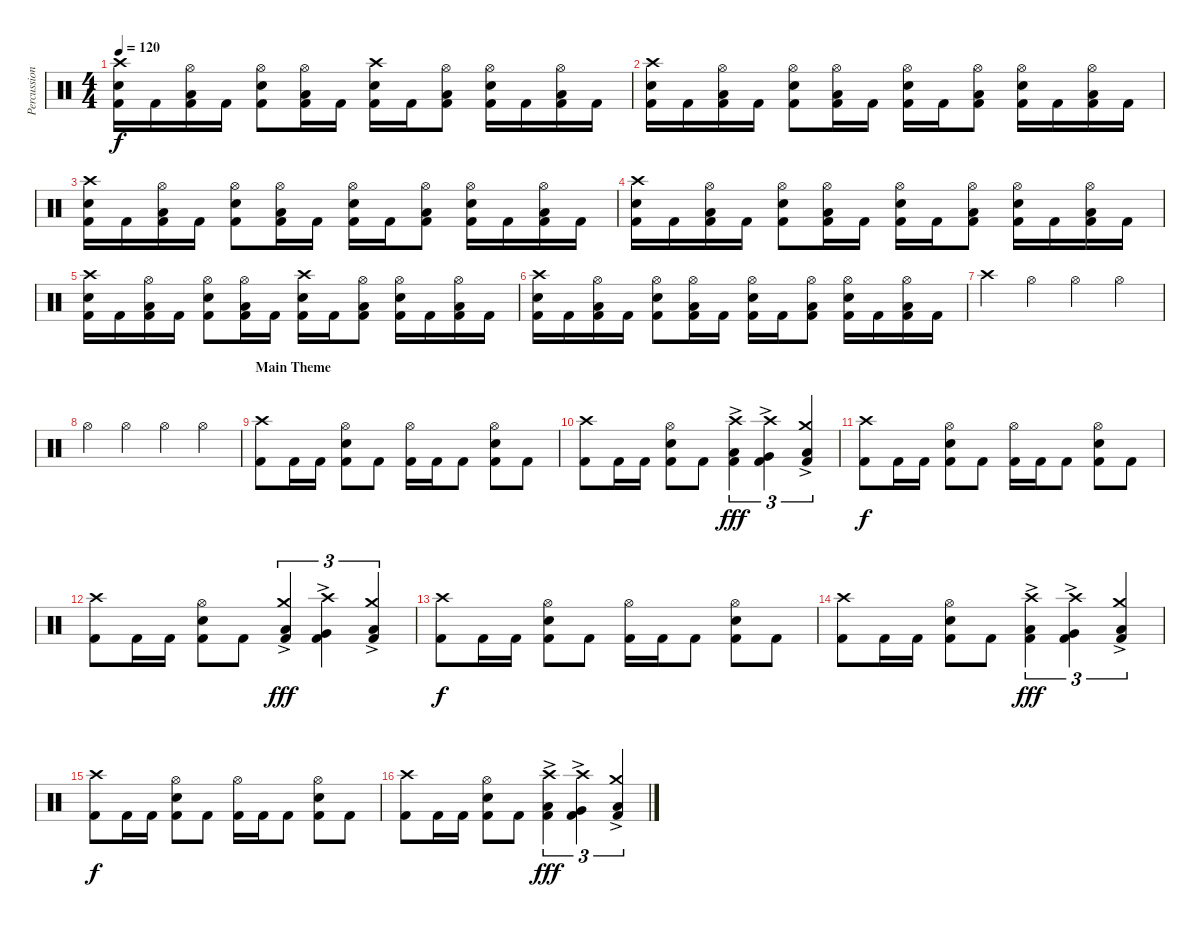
\track ("Percussion" "Percussion") {instrument percussion}
\staff {score}
\articulation defaults
\ts (4 4)
\tempo 120
\clef neutral
\ks c
("Crash high (hit)" "Electric Snare (hit)" "Kick (hit) 2").16{dy f} "Kick (hit) 2".16 ("Hi-Hat (open)" "Low Floor Tom (hit)" "Kick (hit) 2").16 "Kick (hit) 2".16 ("Hi-Hat (open)" "Electric Snare (hit)" "Kick (hit) 2").8 ("Hi-Hat (open)" "Low Floor Tom (hit)" "Kick (hit) 2").16 "Kick (hit) 2".16 ("Crash high (hit)" "Electric Snare (hit)" "Kick (hit) 2").16 "Kick (hit) 2".16 ("Hi-Hat (open)" "Low Floor Tom (hit)" "Kick (hit) 2").8 ("Hi-Hat (open)" "Electric Snare (hit)" "Kick (hit) 2").16 "Kick (hit) 2".16 ("Hi-Hat (open)" "Low Floor Tom (hit)" "Kick (hit) 2").16 "Kick (hit) 2".16 |
("Crash high (hit)" "Electric Snare (hit)" "Kick (hit) 2").16 "Kick (hit) 2".16 ("Hi-Hat (open)" "Low Floor Tom (hit)" "Kick (hit) 2").16 "Kick (hit) 2".16 ("Hi-Hat (open)" "Electric Snare (hit)" "Kick (hit) 2").8 ("Hi-Hat (open)" "Low Floor Tom (hit)" "Kick (hit) 2").16 "Kick (hit) 2".16 ("Hi-Hat (open)" "Electric Snare (hit)" "Kick (hit) 2").16 "Kick (hit) 2".16 ("Hi-Hat (open)" "Low Floor Tom (hit)" "Kick (hit) 2").8 ("Hi-Hat (open)" "Electric Snare (hit)" "Kick (hit) 2").16 "Kick (hit) 2".16 ("Hi-Hat (open)" "Low Floor Tom (hit)" "Kick (hit) 2").16 "Kick (hit) 2".16 |
("Crash high (hit)" "Electric Snare (hit)" "Kick (hit) 2").16 "Kick (hit) 2".16 ("Hi-Hat (open)" "Low Floor Tom (hit)" "Kick (hit) 2").16 "Kick (hit) 2".16 ("Hi-Hat (open)" "Electric Snare (hit)" "Kick (hit) 2").8 ("Hi-Hat (open)" "Low Floor Tom (hit)" "Kick (hit) 2").16 "Kick (hit) 2".16 ("Hi-Hat (open)" "Electric Snare (hit)" "Kick (hit) 2").16 "Kick (hit) 2".16 ("Hi-Hat (open)" "Low Floor Tom (hit)" "Kick (hit) 2").8 ("Hi-Hat (open)" "Electric Snare (hit)" "Kick (hit) 2").16 "Kick (hit) 2".16 ("Hi-Hat (open)" "Low Floor Tom (hit)" "Kick (hit) 2").16 "Kick (hit) 2".16 |
("Crash high (hit)" "Electric Snare (hit)" "Kick (hit) 2").16 "Kick (hit) 2".16 ("Hi-Hat (open)" "Low Floor Tom (hit)" "Kick (hit) 2").16 "Kick (hit) 2".16 ("Hi-Hat (open)" "Electric Snare (hit)" "Kick (hit) 2").8 ("Hi-Hat (open)" "Low Floor Tom (hit)" "Kick (hit) 2").16 "Kick (hit) 2".16 ("Hi-Hat (open)" "Electric Snare (hit)" "Kick (hit) 2").16 "Kick (hit) 2".16 ("Hi-Hat (open)" "Low Floor Tom (hit)" "Kick (hit) 2").8 ("Hi-Hat (open)" "Electric Snare (hit)" "Kick (hit) 2").16 "Kick (hit) 2".16 ("Hi-Hat (open)" "Low Floor Tom (hit)" "Kick (hit) 2").16 "Kick (hit) 2".16 |
("Crash high (hit)" "Electric Snare (hit)" "Kick (hit) 2").16 "Kick (hit) 2".16 ("Hi-Hat (open)" "Low Floor Tom (hit)" "Kick (hit) 2").16 "Kick (hit) 2".16 ("Hi-Hat (open)" "Electric Snare (hit)" "Kick (hit) 2").8 ("Hi-Hat (open)" "Low Floor Tom (hit)" "Kick (hit) 2").16 "Kick (hit) 2".16 ("Crash high (hit)" "Electric Snare (hit)" "Kick (hit) 2").16 "Kick (hit) 2".16 ("Hi-Hat (open)" "Low Floor Tom (hit)" "Kick (hit) 2").8 ("Hi-Hat (open)" "Electric Snare (hit)" "Kick (hit) 2").16 "Kick (hit) 2".16 ("Hi-Hat (open)" "Low Floor Tom (hit)" "Kick (hit) 2").16 "Kick (hit) 2".16 |
("Crash high (hit)" "Electric Snare (hit)" "Kick (hit) 2").16 "Kick (hit) 2".16 ("Hi-Hat (open)" "Low Floor Tom (hit)" "Kick (hit) 2").16 "Kick (hit) 2".16 ("Hi-Hat (open)" "Electric Snare (hit)" "Kick (hit) 2").8 ("Hi-Hat (open)" "Low Floor Tom (hit)" "Kick (hit) 2").16 "Kick (hit) 2".16 ("Hi-Hat (open)" "Electric Snare (hit)" "Kick (hit) 2").16 "Kick (hit) 2".16 ("Hi-Hat (open)" "Low Floor Tom (hit)" "Kick (hit) 2").8 ("Hi-Hat (open)" "Electric Snare (hit)" "Kick (hit) 2").16 "Kick (hit) 2".16 ("Hi-Hat (open)" "Low Floor Tom (hit)" "Kick (hit) 2").16 "Kick (hit) 2".16 |
"Crash high (hit)".4 "Hi-Hat (open)".4 "Hi-Hat (open)".4 "Hi-Hat (open)".4 |
"Hi-Hat (open)".4 "Hi-Hat (open)".4 "Hi-Hat (open)".4 "Hi-Hat (open)".4 |
\section ("" "Main Theme")
("Crash high (hit)" "Kick (hit) 2").8 "Kick (hit) 2".16 "Kick (hit) 2".16 ("Hi-Hat (open)" "Electric Snare (hit)" "Kick (hit) 2").8 "Kick (hit) 2".8 ("Hi-Hat (open)" "Kick (hit) 2").16 "Kick (hit) 2".16 "Kick (hit) 2".8 ("Hi-Hat (open)" "Electric Snare (hit)" "Kick (hit) 2").8 "Kick (hit) 2".8 |
("Crash high (hit)" "Kick (hit) 2").8 "Kick (hit) 2".16 "Kick (hit) 2".16 ("Hi-Hat (open)" "Electric Snare (hit)" "Kick (hit) 2").8 "Kick (hit) 2".8 ("Crash high (hit)" "Low Floor Tom (hit)"{ac} "Kick (hit) 2").4{tu (3 2) dy fff} ("Crash high (hit)" "Very Low Tom (hit)"{ac} "Kick (hit) 2").4{tu (3 2)} ("Crash medium (hit)" "Low Tom (hit)"{ac} "Kick (hit) 2").4{tu (3 2)} |
("Crash high (hit)" "Kick (hit) 2").8{dy f} "Kick (hit) 2".16 "Kick (hit) 2".16 ("Hi-Hat (open)" "Electric Snare (hit)" "Kick (hit) 2").8 "Kick (hit) 2".8 ("Hi-Hat (open)" "Kick (hit) 2").16 "Kick (hit) 2".16 "Kick (hit) 2".8 ("Hi-Hat (open)" "Electric Snare (hit)" "Kick (hit) 2").8 "Kick (hit) 2".8 |
("Crash high (hit)" "Kick (hit) 2").8 "Kick (hit) 2".16 "Kick (hit) 2".16 ("Hi-Hat (open)" "Electric Snare (hit)" "Kick (hit) 2").8 "Kick (hit) 2".8 ("Crash medium (hit)" "Low Tom (hit)"{ac} "Kick (hit) 2").4{tu (3 2) dy fff} ("Crash high (hit)" "Very Low Tom (hit)"{ac} "Kick (hit) 2").4{tu (3 2)} ("Crash medium (hit)" "Low Tom (hit)"{ac} "Kick (hit) 2").4{tu (3 2)} |
("Crash high (hit)" "Kick (hit) 2").8{dy f} "Kick (hit) 2".16 "Kick (hit) 2".16 ("Hi-Hat (open)" "Electric Snare (hit)" "Kick (hit) 2").8 "Kick (hit) 2".8 ("Hi-Hat (open)" "Kick (hit) 2").16 "Kick (hit) 2".16 "Kick (hit) 2".8 ("Hi-Hat (open)" "Electric Snare (hit)" "Kick (hit) 2").8 "Kick (hit) 2".8 |
("Crash high (hit)" "Kick (hit) 2").8 "Kick (hit) 2".16 "Kick (hit) 2".16 ("Hi-Hat (open)" "Electric Snare (hit)" "Kick (hit) 2").8 "Kick (hit) 2".8 ("Crash high (hit)" "Low Floor Tom (hit)"{ac} "Kick (hit) 2").4{tu (3 2) dy fff} ("Crash high (hit)" "Very Low Tom (hit)"{ac} "Kick (hit) 2").4{tu (3 2)} ("Crash medium (hit)" "Low Tom (hit)"{ac} "Kick (hit) 2").4{tu (3 2)} |
("Crash high (hit)" "Kick (hit) 2").8{dy f} "Kick (hit) 2".16 "Kick (hit) 2".16 ("Hi-Hat (open)" "Electric Snare (hit)" "Kick (hit) 2").8 "Kick (hit) 2".8 ("Hi-Hat (open)" "Kick (hit) 2").16 "Kick (hit) 2".16 "Kick (hit) 2".8 ("Hi-Hat (open)" "Electric Snare (hit)" "Kick (hit) 2").8 "Kick (hit) 2".8 |
("Crash high (hit)" "Kick (hit) 2").8 "Kick (hit) 2".16 "Kick (hit) 2".16 ("Hi-Hat (open)" "Electric Snare (hit)" "Kick (hit) 2").8 "Kick (hit) 2".8 ("Crash high (hit)" "Low Floor Tom (hit)"{ac} "Kick (hit) 2").4{tu (3 2) dy fff} ("Crash high (hit)" "Very Low Tom (hit)"{ac} "Kick (hit) 2").4{tu (3 2)} ("Crash medium (hit)" "Low Tom (hit)"{ac} "Kick (hit) 2").4{tu (3 2)}
